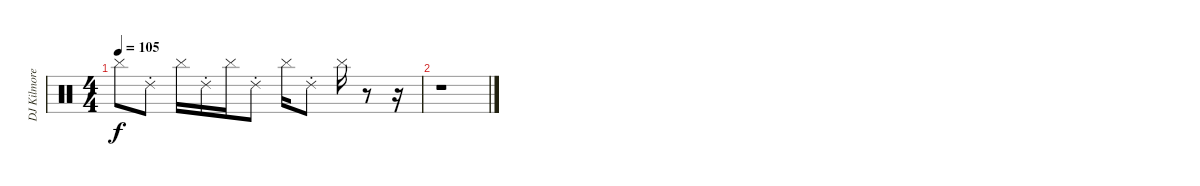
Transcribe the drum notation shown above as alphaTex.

\track ("DJ Kilmore" "DJ Kilmore") {instrument percussion}
\staff {score}
\articulation defaults
\ts (4 4)
\tempo 105
\clef neutral
\ks c "Cymbal (hit)".8{dy f} "Ride (choke) 2".8 "Cymbal (hit)".16 "Ride (choke) 2".16 "Cymbal (hit)".16 "Ride (choke) 2".8 "Cymbal (hit)".16 "Ride (choke) 2".8 "Cymbal (hit)".16
r.8 r.16 |
r.1
